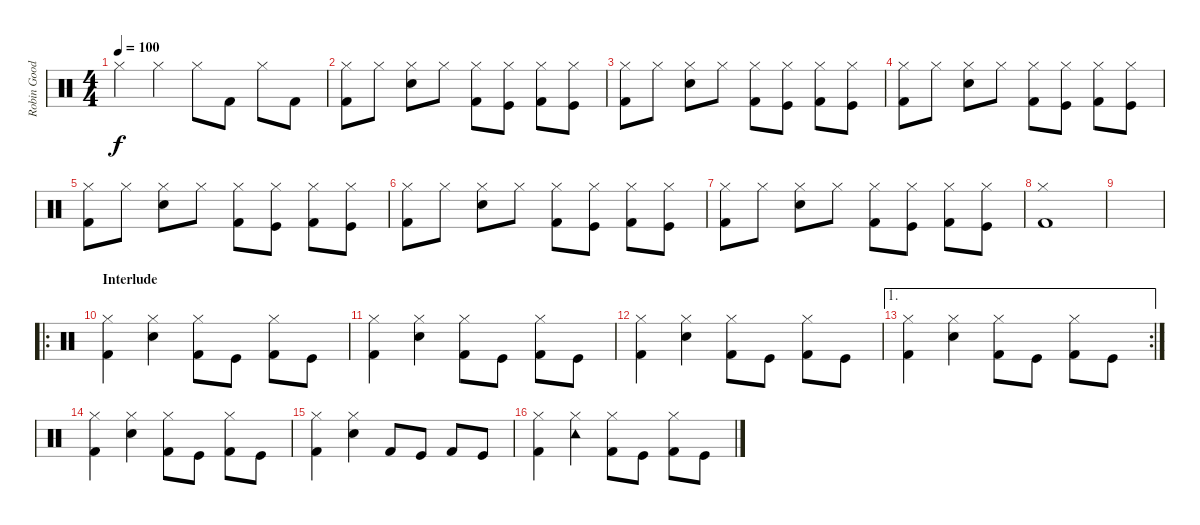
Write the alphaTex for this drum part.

\track ("Robin Goodridge - Drums " "Robin Good") {instrument percussion}
\staff {score}
\articulation defaults
\ts (4 4)
\tempo 100
\clef neutral
\ks c "Hi-Hat (closed)".4{dy f} "Hi-Hat (closed)".4 "Hi-Hat (closed)".8 "Kick (hit) 2".8 "Hi-Hat (closed)".8 "Kick (hit) 2".8
|
("Hi-Hat (closed)" "Kick (hit) 2").8 "Hi-Hat (closed)".8 ("Hi-Hat (closed)" "Snare (hit) 2").8 "Hi-Hat (closed)".8 ("Hi-Hat (closed)" "Kick (hit) 2").8 ("Hi-Hat (closed)" "Kick (hit)").8 ("Hi-Hat (closed)" "Kick (hit) 2").8 ("Hi-Hat (closed)" "Kick (hit)").8 |
("Hi-Hat (closed)" "Kick (hit) 2").8 "Hi-Hat (closed)".8 ("Hi-Hat (closed)" "Snare (hit) 2").8 "Hi-Hat (closed)".8 ("Hi-Hat (closed)" "Kick (hit) 2").8 ("Hi-Hat (closed)" "Kick (hit)").8 ("Hi-Hat (closed)" "Kick (hit) 2").8 ("Hi-Hat (closed)" "Kick (hit)").8 |
("Hi-Hat (closed)" "Kick (hit) 2").8 "Hi-Hat (closed)".8 ("Hi-Hat (closed)" "Snare (hit) 2").8 "Hi-Hat (closed)".8 ("Hi-Hat (closed)" "Kick (hit) 2").8 ("Hi-Hat (closed)" "Kick (hit)").8 ("Hi-Hat (closed)" "Kick (hit) 2").8 ("Hi-Hat (closed)" "Kick (hit)").8 |
("Hi-Hat (closed)" "Kick (hit) 2").8 "Hi-Hat (closed)".8 ("Hi-Hat (closed)" "Snare (hit) 2").8 "Hi-Hat (closed)".8 ("Hi-Hat (closed)" "Kick (hit) 2").8 ("Hi-Hat (closed)" "Kick (hit)").8 ("Hi-Hat (closed)" "Kick (hit) 2").8 ("Hi-Hat (closed)" "Kick (hit)").8 |
("Hi-Hat (closed)" "Kick (hit) 2").8 "Hi-Hat (closed)".8 ("Hi-Hat (closed)" "Snare (hit) 2").8 "Hi-Hat (closed)".8 ("Hi-Hat (closed)" "Kick (hit) 2").8 ("Hi-Hat (closed)" "Kick (hit)").8 ("Hi-Hat (closed)" "Kick (hit) 2").8 ("Hi-Hat (closed)" "Kick (hit)").8 |
("Hi-Hat (closed)" "Kick (hit) 2").8 "Hi-Hat (closed)".8 ("Hi-Hat (closed)" "Snare (hit) 2").8 "Hi-Hat (closed)".8 ("Hi-Hat (closed)" "Kick (hit) 2").8 ("Hi-Hat (closed)" "Kick (hit)").8 ("Hi-Hat (closed)" "Kick (hit) 2").8 ("Hi-Hat (closed)" "Kick (hit)").8 |
("Hi-Hat (closed)" "Kick (hit) 2").1 |
|
\ro
\section ("" "Interlude")
("Hi-Hat (closed)" "Kick (hit) 2").4 ("Hi-Hat (closed)" "Snare (hit) 2").4 ("Hi-Hat (closed)" "Kick (hit) 2").8 "Kick (hit)".8 ("Hi-Hat (closed)" "Kick (hit) 2").8 "Kick (hit)".8 |
("Hi-Hat (closed)" "Kick (hit) 2").4 ("Hi-Hat (closed)" "Snare (hit) 2").4 ("Hi-Hat (closed)" "Kick (hit) 2").8 "Kick (hit)".8 ("Hi-Hat (closed)" "Kick (hit) 2").8 "Kick (hit)".8 |
("Hi-Hat (closed)" "Kick (hit) 2").4 ("Hi-Hat (closed)" "Snare (hit) 2").4 ("Hi-Hat (closed)" "Kick (hit) 2").8 "Kick (hit)".8 ("Hi-Hat (closed)" "Kick (hit) 2").8 "Kick (hit)".8 |
\ae 1
\rc 2
("Hi-Hat (closed)" "Kick (hit) 2").4 ("Hi-Hat (closed)" "Snare (hit) 2").4 ("Hi-Hat (closed)" "Kick (hit) 2").8 "Kick (hit)".8 ("Hi-Hat (closed)" "Kick (hit) 2").8 "Kick (hit)".8 |
("Hi-Hat (closed)" "Kick (hit) 2").4 ("Hi-Hat (closed)" "Snare (hit) 2").4 ("Hi-Hat (closed)" "Kick (hit) 2").8 "Kick (hit)".8 ("Hi-Hat (closed)" "Kick (hit) 2").8 "Kick (hit)".8 |
("Hi-Hat (closed)" "Kick (hit) 2").4 ("Hi-Hat (closed)" "Snare (hit) 2").4 "Kick (hit) 2".8 "Kick (hit)".8 "Kick (hit) 2".8 "Kick (hit)".8 |
("Hi-Hat (closed)" "Kick (hit) 2").4 ("Hi-Hat (closed)" "Tambourine (hit)").4 ("Hi-Hat (closed)" "Kick (hit) 2").8 "Kick (hit)".8 ("Hi-Hat (closed)" "Kick (hit) 2").8 "Kick (hit)".8
